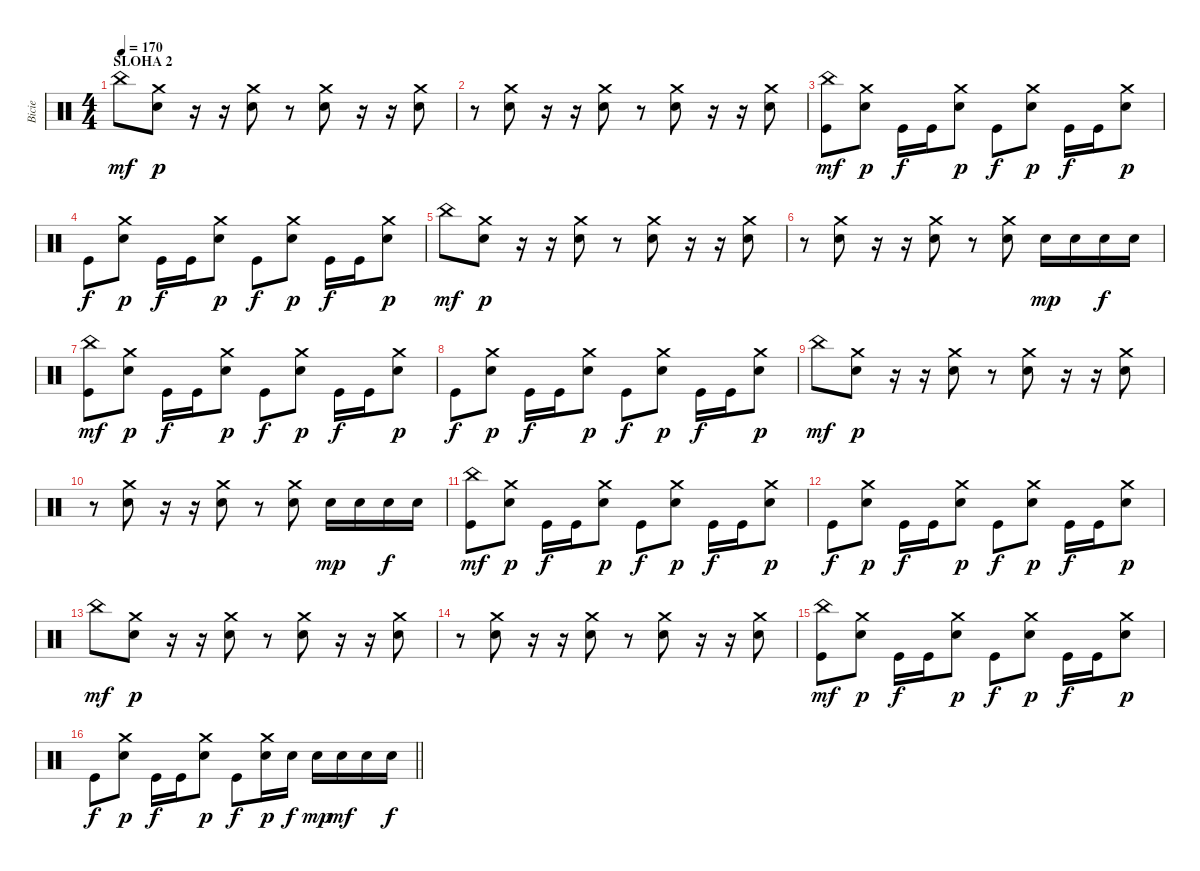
\track ("Bicie" "Bicie") {instrument percussion}
\staff {score}
\articulation defaults
\ts (4 4)
\section ("" "SLOHA 2")
\tempo 170
\clef neutral
\ks c "China (hit)".8{dy mf}
("Snare (hit) 2" "Crash medium (hit)").8{dy p} r.16 r.16 ("Snare (hit) 2" "Crash medium (hit)").8 r.8 ("Snare (hit) 2" "Crash medium (hit)").8 r.16 r.16 ("Snare (hit) 2" "Crash medium (hit)").8 |
r.8 ("Snare (hit) 2" "Crash medium (hit)").8 r.16 r.16 ("Snare (hit) 2" "Crash medium (hit)").8 r.8 ("Snare (hit) 2" "Crash medium (hit)").8 r.16 r.16 ("Snare (hit) 2" "Crash medium (hit)").8 |
("Kick (hit)" "China (hit)").8{dy mf} ("Snare (hit) 2" "Crash medium (hit)").8{dy p} "Kick (hit)".16{dy f} "Kick (hit)".16 ("Snare (hit) 2" "Crash medium (hit)").8{dy p} "Kick (hit)".8{dy f} ("Snare (hit) 2" "Crash medium (hit)").8{dy p} "Kick (hit)".16{dy f} "Kick (hit)".16 ("Snare (hit) 2" "Crash medium (hit)").8{dy p} |
"Kick (hit)".8{dy f} ("Snare (hit) 2" "Crash medium (hit)").8{dy p} "Kick (hit)".16{dy f} "Kick (hit)".16 ("Snare (hit) 2" "Crash medium (hit)").8{dy p} "Kick (hit)".8{dy f} ("Snare (hit) 2" "Crash medium (hit)").8{dy p} "Kick (hit)".16{dy f} "Kick (hit)".16 ("Snare (hit) 2" "Crash medium (hit)").8{dy p} |
"China (hit)".8{dy mf} ("Snare (hit) 2" "Crash medium (hit)").8{dy p} r.16 r.16 ("Snare (hit) 2" "Crash medium (hit)").8 r.8 ("Snare (hit) 2" "Crash medium (hit)").8 r.16 r.16 ("Snare (hit) 2" "Crash medium (hit)").8 |
r.8 ("Snare (hit) 2" "Crash medium (hit)").8 r.16 r.16 ("Snare (hit) 2" "Crash medium (hit)").8 r.8 ("Snare (hit) 2" "Crash medium (hit)").8 "Snare (hit) 2".16{dy mp} "Snare (hit) 2".16 "Snare (hit) 2".16{dy f} "Snare (hit) 2".16 |
("Kick (hit)" "China (hit)").8{dy mf} ("Snare (hit) 2" "Crash medium (hit)").8{dy p} "Kick (hit)".16{dy f} "Kick (hit)".16 ("Snare (hit) 2" "Crash medium (hit)").8{dy p} "Kick (hit)".8{dy f} ("Snare (hit) 2" "Crash medium (hit)").8{dy p} "Kick (hit)".16{dy f} "Kick (hit)".16 ("Snare (hit) 2" "Crash medium (hit)").8{dy p} |
"Kick (hit)".8{dy f} ("Snare (hit) 2" "Crash medium (hit)").8{dy p} "Kick (hit)".16{dy f} "Kick (hit)".16 ("Snare (hit) 2" "Crash medium (hit)").8{dy p} "Kick (hit)".8{dy f} ("Snare (hit) 2" "Crash medium (hit)").8{dy p} "Kick (hit)".16{dy f} "Kick (hit)".16 ("Snare (hit) 2" "Crash medium (hit)").8{dy p} |
"China (hit)".8{dy mf} ("Snare (hit) 2" "Crash medium (hit)").8{dy p} r.16 r.16 ("Snare (hit) 2" "Crash medium (hit)").8 r.8 ("Snare (hit) 2" "Crash medium (hit)").8 r.16 r.16 ("Snare (hit) 2" "Crash medium (hit)").8 |
r.8 ("Snare (hit) 2" "Crash medium (hit)").8 r.16 r.16 ("Snare (hit) 2" "Crash medium (hit)").8 r.8 ("Snare (hit) 2" "Crash medium (hit)").8 "Snare (hit) 2".16{dy mp} "Snare (hit) 2".16 "Snare (hit) 2".16{dy f} "Snare (hit) 2".16 |
("Kick (hit)" "China (hit)").8{dy mf} ("Snare (hit) 2" "Crash medium (hit)").8{dy p} "Kick (hit)".16{dy f} "Kick (hit)".16 ("Snare (hit) 2" "Crash medium (hit)").8{dy p} "Kick (hit)".8{dy f} ("Snare (hit) 2" "Crash medium (hit)").8{dy p} "Kick (hit)".16{dy f} "Kick (hit)".16 ("Snare (hit) 2" "Crash medium (hit)").8{dy p} |
"Kick (hit)".8{dy f} ("Snare (hit) 2" "Crash medium (hit)").8{dy p} "Kick (hit)".16{dy f} "Kick (hit)".16 ("Snare (hit) 2" "Crash medium (hit)").8{dy p} "Kick (hit)".8{dy f} ("Snare (hit) 2" "Crash medium (hit)").8{dy p} "Kick (hit)".16{dy f} "Kick (hit)".16 ("Snare (hit) 2" "Crash medium (hit)").8{dy p} |
"China (hit)".8{dy mf} ("Snare (hit) 2" "Crash medium (hit)").8{dy p} r.16 r.16 ("Snare (hit) 2" "Crash medium (hit)").8 r.8 ("Snare (hit) 2" "Crash medium (hit)").8 r.16 r.16 ("Snare (hit) 2" "Crash medium (hit)").8 |
r.8 ("Snare (hit) 2" "Crash medium (hit)").8 r.16 r.16 ("Snare (hit) 2" "Crash medium (hit)").8 r.8 ("Snare (hit) 2" "Crash medium (hit)").8 r.16 r.16 ("Snare (hit) 2" "Crash medium (hit)").8 |
("Kick (hit)" "China (hit)").8{dy mf} ("Snare (hit) 2" "Crash medium (hit)").8{dy p} "Kick (hit)".16{dy f} "Kick (hit)".16 ("Snare (hit) 2" "Crash medium (hit)").8{dy p} "Kick (hit)".8{dy f} ("Snare (hit) 2" "Crash medium (hit)").8{dy p} "Kick (hit)".16{dy f} "Kick (hit)".16 ("Snare (hit) 2" "Crash medium (hit)").8{dy p} |
\barLineRight lightlight "Kick (hit)".8{dy f}
("Snare (hit) 2" "Crash medium (hit)").8{dy p} "Kick (hit)".16{dy f} "Kick (hit)".16 ("Snare (hit) 2" "Crash medium (hit)").8{dy p} "Kick (hit)".8{dy f} ("Snare (hit) 2" "Crash medium (hit)").16{dy p} "Snare (hit) 2".16{dy f} "Snare (hit) 2".16{dy mp} "Snare (hit) 2".16{dy mf} "Snare (hit) 2".16 "Snare (hit) 2".16{dy f}
